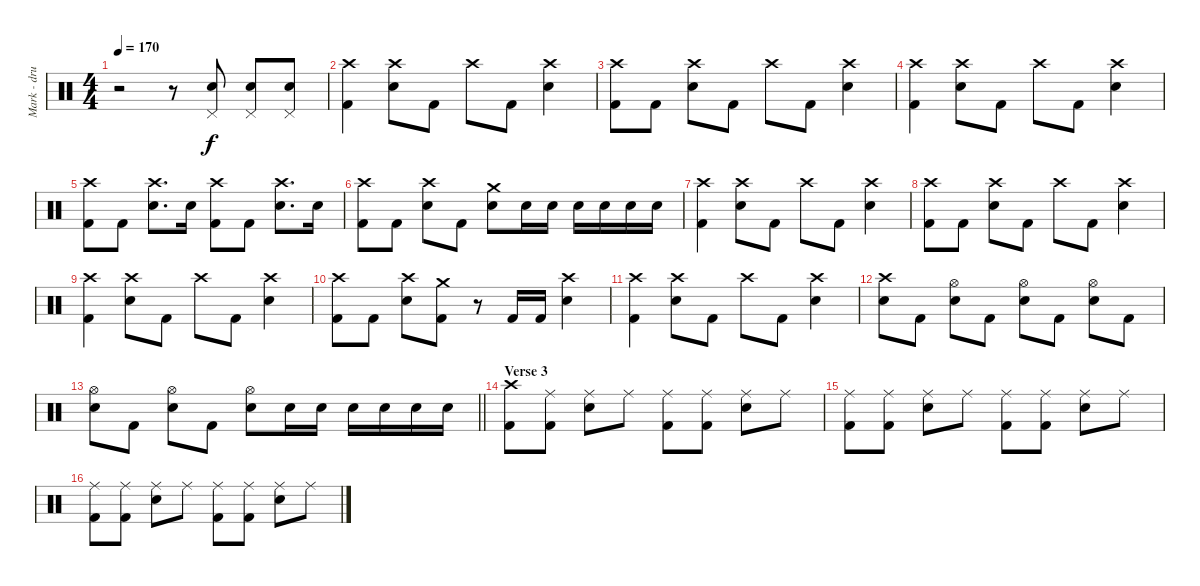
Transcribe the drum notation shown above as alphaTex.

\track ("Mark - drums" "Mark - dru") {instrument percussion}
\staff {score}
\articulation defaults
\ts (4 4)
\tempo 170
\clef neutral
\ks c
r.2{dy f} r.8 ("Electric Snare (hit)" "Pedal Hi-Hat (hit)").8 ("Electric Snare (hit)" "Pedal Hi-Hat (hit)").8 ("Electric Snare (hit)" "Pedal Hi-Hat (hit)").8 |
("Kick (hit) 2" "Crash high (hit)").4 ("Electric Snare (hit)" "Crash high (hit)").8 "Kick (hit) 2".8 "Crash high (hit)".8 "Kick (hit) 2".8 ("Electric Snare (hit)" "Crash high (hit)").4 |
("Kick (hit) 2" "Crash high (hit)").8 "Kick (hit) 2".8 ("Electric Snare (hit)" "Crash high (hit)").8 "Kick (hit) 2".8 "Crash high (hit)".8 "Kick (hit) 2".8 ("Electric Snare (hit)" "Crash high (hit)").4 |
("Kick (hit) 2" "Crash high (hit)").4 ("Electric Snare (hit)" "Crash high (hit)").8 "Kick (hit) 2".8 "Crash high (hit)".8 "Kick (hit) 2".8 ("Electric Snare (hit)" "Crash high (hit)").4 |
("Kick (hit) 2" "Crash high (hit)").8 "Kick (hit) 2".8 ("Electric Snare (hit)" "Crash high (hit)").8{d} "Electric Snare (hit)".16 ("Kick (hit) 2" "Crash high (hit)").8 "Kick (hit) 2".8 ("Electric Snare (hit)" "Crash high (hit)").8{d} "Electric Snare (hit)".16 |
("Kick (hit) 2" "Crash high (hit)").8 "Kick (hit) 2".8 ("Electric Snare (hit)" "Crash high (hit)").8 "Kick (hit) 2".8 ("Electric Snare (hit)" "Crash medium (hit)").8 "Electric Snare (hit)".16 "Electric Snare (hit)".16 "Electric Snare (hit)".16 "Electric Snare (hit)".16 "Electric Snare (hit)".16 "Electric Snare (hit)".16 |
("Kick (hit) 2" "Crash high (hit)").4 ("Electric Snare (hit)" "Crash high (hit)").8 "Kick (hit) 2".8 "Crash high (hit)".8 "Kick (hit) 2".8 ("Electric Snare (hit)" "Crash high (hit)").4 |
("Kick (hit) 2" "Crash high (hit)").8 "Kick (hit) 2".8 ("Electric Snare (hit)" "Crash high (hit)").8 "Kick (hit) 2".8 "Crash high (hit)".8 "Kick (hit) 2".8 ("Electric Snare (hit)" "Crash high (hit)").4 |
("Kick (hit) 2" "Crash high (hit)").4 ("Electric Snare (hit)" "Crash high (hit)").8 "Kick (hit) 2".8 "Crash high (hit)".8 "Kick (hit) 2".8 ("Electric Snare (hit)" "Crash high (hit)").4 |
("Kick (hit) 2" "Crash high (hit)").8 "Kick (hit) 2".8 ("Electric Snare (hit)" "Crash high (hit)").8 ("Kick (hit) 2" "Crash medium (hit)").8 r.8 "Kick (hit) 2".16 "Kick (hit) 2".16 ("Electric Snare (hit)" "Crash high (hit)").4 |
("Kick (hit) 2" "Crash high (hit)").4 ("Electric Snare (hit)" "Crash high (hit)").8 "Kick (hit) 2".8 "Crash high (hit)".8 "Kick (hit) 2".8 ("Electric Snare (hit)" "Crash high (hit)").4 |
("Electric Snare (hit)" "Crash high (hit)").8 "Kick (hit) 2".8 ("Electric Snare (hit)" "Hi-Hat (open)").8 "Kick (hit) 2".8 ("Electric Snare (hit)" "Hi-Hat (open)").8 "Kick (hit) 2".8 ("Electric Snare (hit)" "Hi-Hat (open)").8 "Kick (hit) 2".8 |
\barLineRight lightlight
("Electric Snare (hit)" "Hi-Hat (open)").8 "Kick (hit) 2".8 ("Electric Snare (hit)" "Hi-Hat (open)").8 "Kick (hit) 2".8 ("Electric Snare (hit)" "Hi-Hat (open)").8 "Electric Snare (hit)".16 "Electric Snare (hit)".16 "Electric Snare (hit)".16 "Electric Snare (hit)".16 "Electric Snare (hit)".16 "Electric Snare (hit)".16 |
\section ("" "Verse 3")
("Kick (hit) 2" "Crash high (hit)").8 ("Kick (hit) 2" "Ride (middle)").8 ("Electric Snare (hit)" "Ride (middle)").8 "Ride (middle)".8 ("Kick (hit) 2" "Ride (middle)").8 ("Kick (hit) 2" "Ride (middle)").8 ("Electric Snare (hit)" "Ride (middle)").8 "Ride (middle)".8 |
("Kick (hit) 2" "Ride (middle)").8 ("Kick (hit) 2" "Ride (middle)").8 ("Electric Snare (hit)" "Ride (middle)").8 "Ride (middle)".8 ("Kick (hit) 2" "Ride (middle)").8 ("Kick (hit) 2" "Ride (middle)").8 ("Electric Snare (hit)" "Ride (middle)").8 "Ride (middle)".8 |
("Kick (hit) 2" "Ride (middle)").8 ("Kick (hit) 2" "Ride (middle)").8 ("Electric Snare (hit)" "Ride (middle)").8 "Ride (middle)".8 ("Kick (hit) 2" "Ride (middle)").8 ("Kick (hit) 2" "Ride (middle)").8 ("Electric Snare (hit)" "Ride (middle)").8 "Ride (middle)".8
